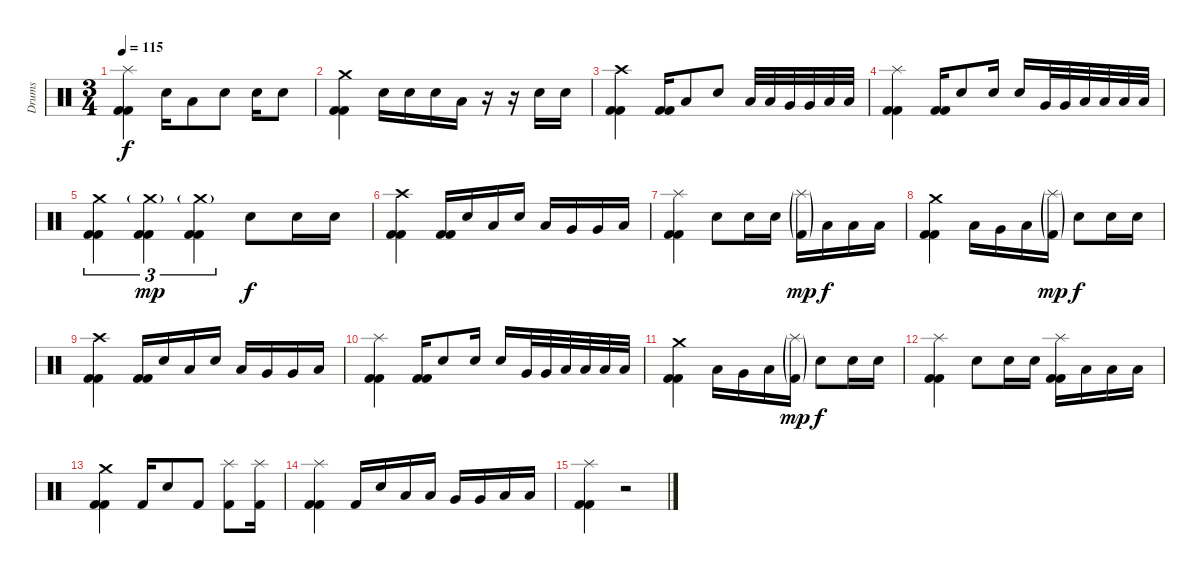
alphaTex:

\track ("Drums" "Drums") {instrument percussion}
\staff {score}
\articulation defaults
\ts (3 4)
\tempo 115
\clef neutral
\ks c
("Splash (hit)" "Kick (hit) 2" "Kick (hit) 2").4{dy f} "Electric Snare (hit)".16 "Low Tom (hit)".8 "Electric Snare (hit)".8 "Electric Snare (hit)".16 "Electric Snare (hit)".8 |
("Crash medium (hit)" "Kick (hit) 2" "Kick (hit) 2").4 "Electric Snare (hit)".16 "Electric Snare (hit)".16 "Electric Snare (hit)".16 "Low Tom (hit)".16 r.16 r.16 "Electric Snare (hit)".16 "Electric Snare (hit)".16 |
("Crash high (hit)" "Kick (hit) 2" "Kick (hit) 2").4 ("Kick (hit) 2" "Kick (hit) 2").16 "Low Tom (hit)".8 "Electric Snare (hit)".8 "Low Tom (hit)".32 "Low Tom (hit)".32 "Very Low Tom (hit)".32 "Very Low Tom (hit)".32 "Low Floor Tom (hit)".32 "Low Floor Tom (hit)".32 |
("Splash (hit)" "Kick (hit) 2" "Kick (hit) 2").4 ("Kick (hit) 2" "Kick (hit) 2").16 "Electric Snare (hit)".8 "Electric Snare (hit)".16 "Electric Snare (hit)".16 "Very Low Tom (hit)".32 "Very Low Tom (hit)".32 "Low Floor Tom (hit)".32 "Low Floor Tom (hit)".32 "Low Floor Tom (hit)".32 "Low Floor Tom (hit)".32 |
("Crash medium (hit)" "Kick (hit) 2" "Kick (hit) 2").4{tu (3 2)} ("Crash medium (hit)"{g} "Kick (hit) 2" "Kick (hit) 2").4{tu (3 2) dy mp} ("Crash medium (hit)"{g} "Kick (hit) 2" "Kick (hit) 2").4{tu (3 2)} "Electric Snare (hit)".8{dy f} "Electric Snare (hit)".16 "Electric Snare (hit)".16 |
("Crash high (hit)" "Kick (hit) 2" "Kick (hit) 2").4 ("Kick (hit) 2" "Kick (hit) 2").16 "Electric Snare (hit)".16 "Low Tom (hit)".16 "Electric Snare (hit)".16 "Low Tom (hit)".16 "Very Low Tom (hit)".16 "Very Low Tom (hit)".16 "Low Floor Tom (hit)".16 |
("Splash (hit)" "Kick (hit) 2" "Kick (hit) 2").4 "Electric Snare (hit)".8 "Electric Snare (hit)".16 "Electric Snare (hit)".16 ("Splash (hit)"{g} "Kick (hit) 2"{g}).16{dy mp} "Low Tom (hit)".16{dy f} "Low Tom (hit)".16 "Low Tom (hit)".16 |
("Crash medium (hit)" "Kick (hit) 2" "Kick (hit) 2").4 "Low Tom (hit)".16 "Very Low Tom (hit)".16 "Low Floor Tom (hit)".16 ("Splash (hit)"{g} "Kick (hit) 2"{g}).16{dy mp} "Electric Snare (hit)".8{dy f} "Electric Snare (hit)".16 "Electric Snare (hit)".16 |
("Crash high (hit)" "Kick (hit) 2" "Kick (hit) 2").4 ("Kick (hit) 2" "Kick (hit) 2").16 "Electric Snare (hit)".16 "Low Tom (hit)".16 "Electric Snare (hit)".16 "Low Tom (hit)".16 "Very Low Tom (hit)".16 "Very Low Tom (hit)".16 "Low Floor Tom (hit)".16 |
("Splash (hit)" "Kick (hit) 2" "Kick (hit) 2").4 ("Kick (hit) 2" "Kick (hit) 2").16 "Electric Snare (hit)".8 "Electric Snare (hit)".16 "Electric Snare (hit)".16 "Very Low Tom (hit)".32 "Very Low Tom (hit)".32 "Low Floor Tom (hit)".32 "Low Floor Tom (hit)".32 "Low Floor Tom (hit)".32 "Low Floor Tom (hit)".32 |
("Crash medium (hit)" "Kick (hit) 2" "Kick (hit) 2").4 "Low Tom (hit)".16 "Very Low Tom (hit)".16 "Low Floor Tom (hit)".16 ("Splash (hit)"{g} "Kick (hit) 2"{g}).16{dy mp} "Electric Snare (hit)".8{dy f} "Electric Snare (hit)".16 "Electric Snare (hit)".16 |
("Splash (hit)" "Kick (hit) 2" "Kick (hit) 2").4 "Electric Snare (hit)".8 "Electric Snare (hit)".16 "Electric Snare (hit)".16 ("Splash (hit)" "Kick (hit) 2" "Kick (hit) 2").16 "Low Tom (hit)".16 "Low Tom (hit)".16 "Low Tom (hit)".16 |
("Crash medium (hit)" "Kick (hit) 2" "Kick (hit) 2").4 "Kick (hit) 2".16 "Electric Snare (hit)".8 "Kick (hit) 2".8 ("Splash (hit)" "Kick (hit) 2").8 ("Splash (hit)" "Kick (hit) 2").16 |
("Splash (hit)" "Kick (hit) 2" "Kick (hit) 2").4 "Kick (hit) 2".16 "Electric Snare (hit)".16 "Low Tom (hit)".16 "Low Tom (hit)".16 "Very Low Tom (hit)".16 "Very Low Tom (hit)".16 "Low Floor Tom (hit)".16 "Low Floor Tom (hit)".16 |
("Splash (hit)" "Kick (hit) 2" "Kick (hit) 2").4 r.2
